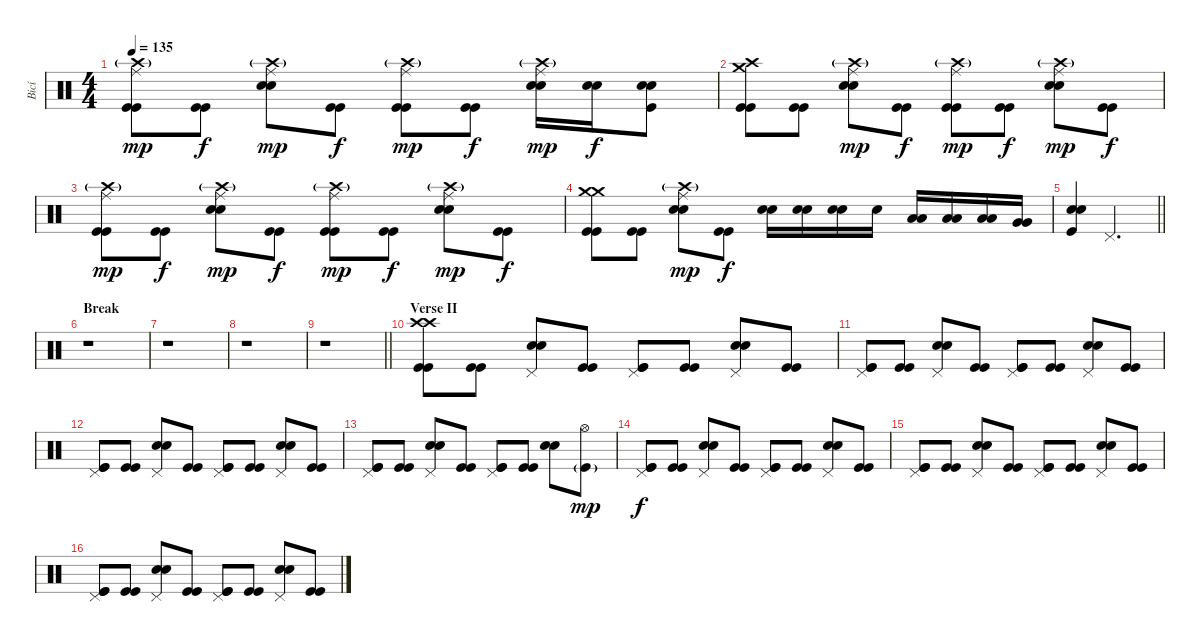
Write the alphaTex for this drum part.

\track ("Bicí" "Bicí") {instrument percussion}
\staff {score}
\articulation defaults
\ts (4 4)
\tempo 135
\clef neutral
\ks c
("Crash high (hit)"{g} "Ride (middle)" "Kick (hit)" "Kick (hit)").8{dy mp} ("Kick (hit)" "Kick (hit)").8{dy f} ("Crash high (hit)"{g} "Ride (middle)" "Electric Snare (hit)" "Electric Snare (hit)").8{dy mp} ("Kick (hit)" "Kick (hit)").8{dy f} ("Crash high (hit)"{g} "Ride (middle)" "Kick (hit)" "Kick (hit)").8{dy mp} ("Kick (hit)" "Kick (hit)").8{dy f} ("Crash high (hit)"{g} "Ride (middle)" "Electric Snare (hit)" "Electric Snare (hit)").16{dy mp} ("Electric Snare (hit)" "Electric Snare (hit)").16{dy f} ("Electric Snare (hit)" "Electric Snare (hit)" "Kick (hit)").8 |
("Crash high (hit)" "Crash medium (hit)" "Kick (hit)" "Kick (hit)").8 ("Kick (hit)" "Kick (hit)").8 ("Crash high (hit)"{g} "Ride (middle)" "Electric Snare (hit)" "Electric Snare (hit)").8{dy mp} ("Kick (hit)" "Kick (hit)").8{dy f} ("Crash high (hit)"{g} "Ride (middle)" "Kick (hit)" "Kick (hit)").8{dy mp} ("Kick (hit)" "Kick (hit)").8{dy f} ("Crash high (hit)"{g} "Ride (middle)" "Electric Snare (hit)" "Electric Snare (hit)").8{dy mp} ("Kick (hit)" "Kick (hit)").8{dy f} |
("Crash high (hit)"{g} "Ride (middle)" "Kick (hit)" "Kick (hit)").8{dy mp} ("Kick (hit)" "Kick (hit)").8{dy f} ("Crash high (hit)"{g} "Ride (middle)" "Electric Snare (hit)" "Electric Snare (hit)").8{dy mp} ("Kick (hit)" "Kick (hit)").8{dy f} ("Crash high (hit)"{g} "Ride (middle)" "Kick (hit)" "Kick (hit)").8{dy mp} ("Kick (hit)" "Kick (hit)").8{dy f} ("Crash high (hit)"{g} "Ride (middle)" "Electric Snare (hit)" "Electric Snare (hit)").8{dy mp} ("Kick (hit)" "Kick (hit)").8{dy f} |
("Crash medium (hit)" "Crash medium (hit)" "Kick (hit)" "Kick (hit)").8 ("Kick (hit)" "Kick (hit)").8 ("Crash high (hit)"{g} "Ride (middle)" "Electric Snare (hit)" "Electric Snare (hit)").8{dy mp} ("Kick (hit)" "Kick (hit)").8{dy f} ("Electric Snare (hit)" "Electric Snare (hit)").16 ("Electric Snare (hit)" "Electric Snare (hit)").16 ("Electric Snare (hit)" "Electric Snare (hit)").16 "Snare (hit)".16 ("Low Tom (hit)" "Low Tom (hit)").16 ("Low Tom (hit)" "Low Tom (hit)").16 ("Low Tom (hit)" "Low Tom (hit)").16 ("Very Low Tom (hit)" "Very Low Tom (hit)").16 |
\barLineRight lightlight
("Electric Snare (hit)" "Electric Snare (hit)" "Kick (hit)").4 "Pedal Hi-Hat (hit)".2{d} |
\section ("" "Break")
r.1 |
r.1 |
r.1 |
\barLineRight lightlight
r.1 |
\section ("" "Verse II")
("Crash high (hit)" "Crash high (hit)" "Kick (hit)" "Kick (hit)").8 ("Kick (hit)" "Kick (hit)").8 ("Pedal Hi-Hat (hit)" "Electric Snare (hit)" "Electric Snare (hit)").8 ("Kick (hit)" "Kick (hit)").8 ("Pedal Hi-Hat (hit)" "Kick (hit)" "Kick (hit)").8 ("Kick (hit)" "Kick (hit)").8 ("Pedal Hi-Hat (hit)" "Electric Snare (hit)" "Electric Snare (hit)").8 ("Kick (hit)" "Kick (hit)").8 |
("Pedal Hi-Hat (hit)" "Kick (hit)" "Kick (hit)").8 ("Kick (hit)" "Kick (hit)").8 ("Pedal Hi-Hat (hit)" "Electric Snare (hit)" "Electric Snare (hit)").8 ("Kick (hit)" "Kick (hit)").8 ("Pedal Hi-Hat (hit)" "Kick (hit)" "Kick (hit)").8 ("Kick (hit)" "Kick (hit)").8 ("Pedal Hi-Hat (hit)" "Electric Snare (hit)" "Electric Snare (hit)").8 ("Kick (hit)" "Kick (hit)").8 |
("Pedal Hi-Hat (hit)" "Kick (hit)" "Kick (hit)").8 ("Kick (hit)" "Kick (hit)").8 ("Pedal Hi-Hat (hit)" "Electric Snare (hit)" "Electric Snare (hit)").8 ("Kick (hit)" "Kick (hit)").8 ("Pedal Hi-Hat (hit)" "Kick (hit)" "Kick (hit)").8 ("Kick (hit)" "Kick (hit)").8 ("Pedal Hi-Hat (hit)" "Electric Snare (hit)" "Electric Snare (hit)").8 ("Kick (hit)" "Kick (hit)").8 |
("Pedal Hi-Hat (hit)" "Kick (hit)" "Kick (hit)").8 ("Kick (hit)" "Kick (hit)").8 ("Pedal Hi-Hat (hit)" "Electric Snare (hit)" "Electric Snare (hit)").8 ("Kick (hit)" "Kick (hit)").8 ("Pedal Hi-Hat (hit)" "Kick (hit)" "Kick (hit)").8 ("Kick (hit)" "Kick (hit)").8 ("Electric Snare (hit)" "Electric Snare (hit)").8 ("Hi-Hat (open)" "Kick (hit)"{g}).8{dy mp} |
("Pedal Hi-Hat (hit)" "Kick (hit)" "Kick (hit)").8{dy f} ("Kick (hit)" "Kick (hit)").8 ("Pedal Hi-Hat (hit)" "Electric Snare (hit)" "Electric Snare (hit)").8 ("Kick (hit)" "Kick (hit)").8 ("Pedal Hi-Hat (hit)" "Kick (hit)" "Kick (hit)").8 ("Kick (hit)" "Kick (hit)").8 ("Pedal Hi-Hat (hit)" "Electric Snare (hit)" "Electric Snare (hit)").8 ("Kick (hit)" "Kick (hit)").8 |
("Pedal Hi-Hat (hit)" "Kick (hit)" "Kick (hit)").8 ("Kick (hit)" "Kick (hit)").8 ("Pedal Hi-Hat (hit)" "Electric Snare (hit)" "Electric Snare (hit)").8 ("Kick (hit)" "Kick (hit)").8 ("Pedal Hi-Hat (hit)" "Kick (hit)" "Kick (hit)").8 ("Kick (hit)" "Kick (hit)").8 ("Pedal Hi-Hat (hit)" "Electric Snare (hit)" "Electric Snare (hit)").8 ("Kick (hit)" "Kick (hit)").8 |
("Pedal Hi-Hat (hit)" "Kick (hit)" "Kick (hit)").8 ("Kick (hit)" "Kick (hit)").8 ("Pedal Hi-Hat (hit)" "Electric Snare (hit)" "Electric Snare (hit)").8 ("Kick (hit)" "Kick (hit)").8 ("Pedal Hi-Hat (hit)" "Kick (hit)" "Kick (hit)").8 ("Kick (hit)" "Kick (hit)").8 ("Pedal Hi-Hat (hit)" "Electric Snare (hit)" "Electric Snare (hit)").8 ("Kick (hit)" "Kick (hit)").8
